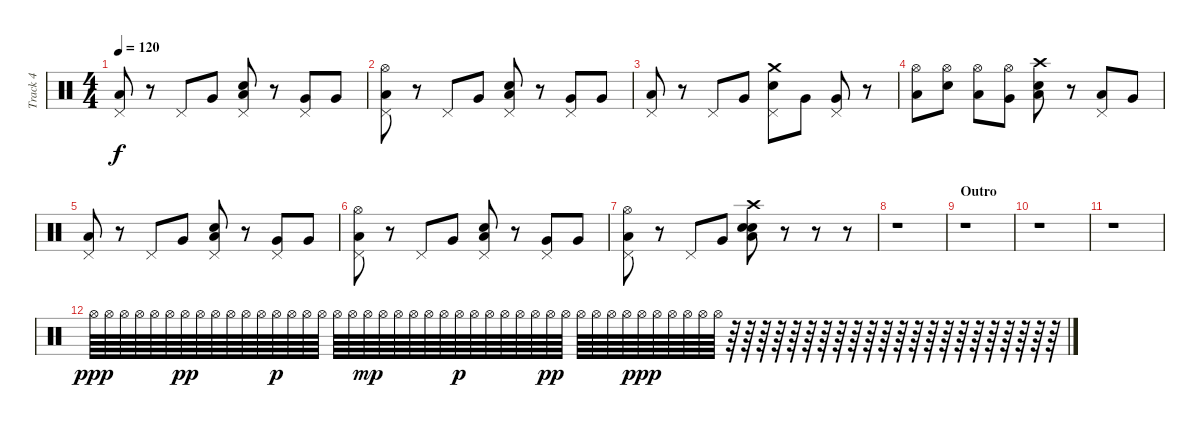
\track ("Track 4" "Track 4") {instrument percussion}
\staff {score}
\articulation defaults
\ts (4 4)
\tempo 120
\clef neutral
\ks c
("Pedal Hi-Hat (hit)" "Low Tom (hit)").8{dy f} r.8 "Pedal Hi-Hat (hit)".8 "Very Low Tom (hit)".8 ("Pedal Hi-Hat (hit)" "Low Tom (hit)" "Electric Snare (hit)").8 r.8 ("Pedal Hi-Hat (hit)" "Very Low Tom (hit)").8 "Very Low Tom (hit)".8 |
("Pedal Hi-Hat (hit)" "Low Tom (hit)" "Hi-Hat (open)").8 r.8 "Pedal Hi-Hat (hit)".8 "Very Low Tom (hit)".8 ("Pedal Hi-Hat (hit)" "Low Tom (hit)" "Electric Snare (hit)").8 r.8 ("Pedal Hi-Hat (hit)" "Very Low Tom (hit)").8 "Very Low Tom (hit)".8 |
("Pedal Hi-Hat (hit)" "Low Tom (hit)").8 r.8 "Pedal Hi-Hat (hit)".8 "Very Low Tom (hit)".8 ("Pedal Hi-Hat (hit)" "Electric Snare (hit)" "Crash medium (hit)").8 "Very Low Tom (hit)".8 ("Pedal Hi-Hat (hit)" "Very Low Tom (hit)").8 r.8 |
("Low Tom (hit)" "Hi-Hat (open)").8 ("Electric Snare (hit)" "Hi-Hat (open)").8 ("Low Tom (hit)" "Hi-Hat (open)").8 ("Very Low Tom (hit)" "Hi-Hat (open)").8 ("Low Tom (hit)" "Electric Snare (hit)" "Crash high (hit)").8 r.8 ("Pedal Hi-Hat (hit)" "Low Floor Tom (hit)").8 "Very Low Tom (hit)".8 |
("Pedal Hi-Hat (hit)" "Low Tom (hit)").8 r.8 "Pedal Hi-Hat (hit)".8 "Very Low Tom (hit)".8 ("Pedal Hi-Hat (hit)" "Low Tom (hit)" "Electric Snare (hit)").8 r.8 ("Pedal Hi-Hat (hit)" "Very Low Tom (hit)").8 "Very Low Tom (hit)".8 |
("Pedal Hi-Hat (hit)" "Low Tom (hit)" "Hi-Hat (open)").8 r.8 "Pedal Hi-Hat (hit)".8 "Very Low Tom (hit)".8 ("Pedal Hi-Hat (hit)" "Low Tom (hit)" "Electric Snare (hit)").8 r.8 ("Pedal Hi-Hat (hit)" "Very Low Tom (hit)").8 "Very Low Tom (hit)".8 |
("Pedal Hi-Hat (hit)" "Low Tom (hit)" "Hi-Hat (open)").8 r.8 "Pedal Hi-Hat (hit)".8 "Very Low Tom (hit)".8 ("Low Tom (hit)" "Electric Snare (hit)" "Crash high (hit)" "Snare (hit) 2").8 r.8 r.8 r.8 |
r.1 |
\section ("" "Outro")
r.1 |
r.1 |
r.1 |
"Hi-Hat (open)".64{dy ppp} "Hi-Hat (open)".64 "Hi-Hat (open)".64 "Hi-Hat (open)".64 "Hi-Hat (open)".64 "Hi-Hat (open)".64 "Hi-Hat (open)".64{dy pp} "Hi-Hat (open)".64 "Hi-Hat (open)".64 "Hi-Hat (open)".64 "Hi-Hat (open)".64 "Hi-Hat (open)".64 "Hi-Hat (open)".64{dy p} "Hi-Hat (open)".64 "Hi-Hat (open)".64 "Hi-Hat (open)".64 "Hi-Hat (open)".64 "Hi-Hat (open)".64 "Hi-Hat (open)".64{dy mp} "Hi-Hat (open)".64 "Hi-Hat (open)".64 "Hi-Hat (open)".64 "Hi-Hat (open)".64 "Hi-Hat (open)".64 "Hi-Hat (open)".64{dy p} "Hi-Hat (open)".64 "Hi-Hat (open)".64 "Hi-Hat (open)".64 "Hi-Hat (open)".64 "Hi-Hat (open)".64 "Hi-Hat (open)".64{dy pp} "Hi-Hat (open)".64 "Hi-Hat (open)".64 "Hi-Hat (open)".64 "Hi-Hat (open)".64 "Hi-Hat (open)".64 "Hi-Hat (open)".64{dy ppp} "Hi-Hat (open)".64 "Hi-Hat (open)".64 "Hi-Hat (open)".64 "Hi-Hat (open)".64 "Hi-Hat (open)".64 r.64 r.64 r.64 r.64 r.64 r.64 r.64 r.64 r.64 r.64 r.64 r.64 r.64 r.64 r.64 r.64 r.64 r.64 r.64 r.64 r.64 r.64
